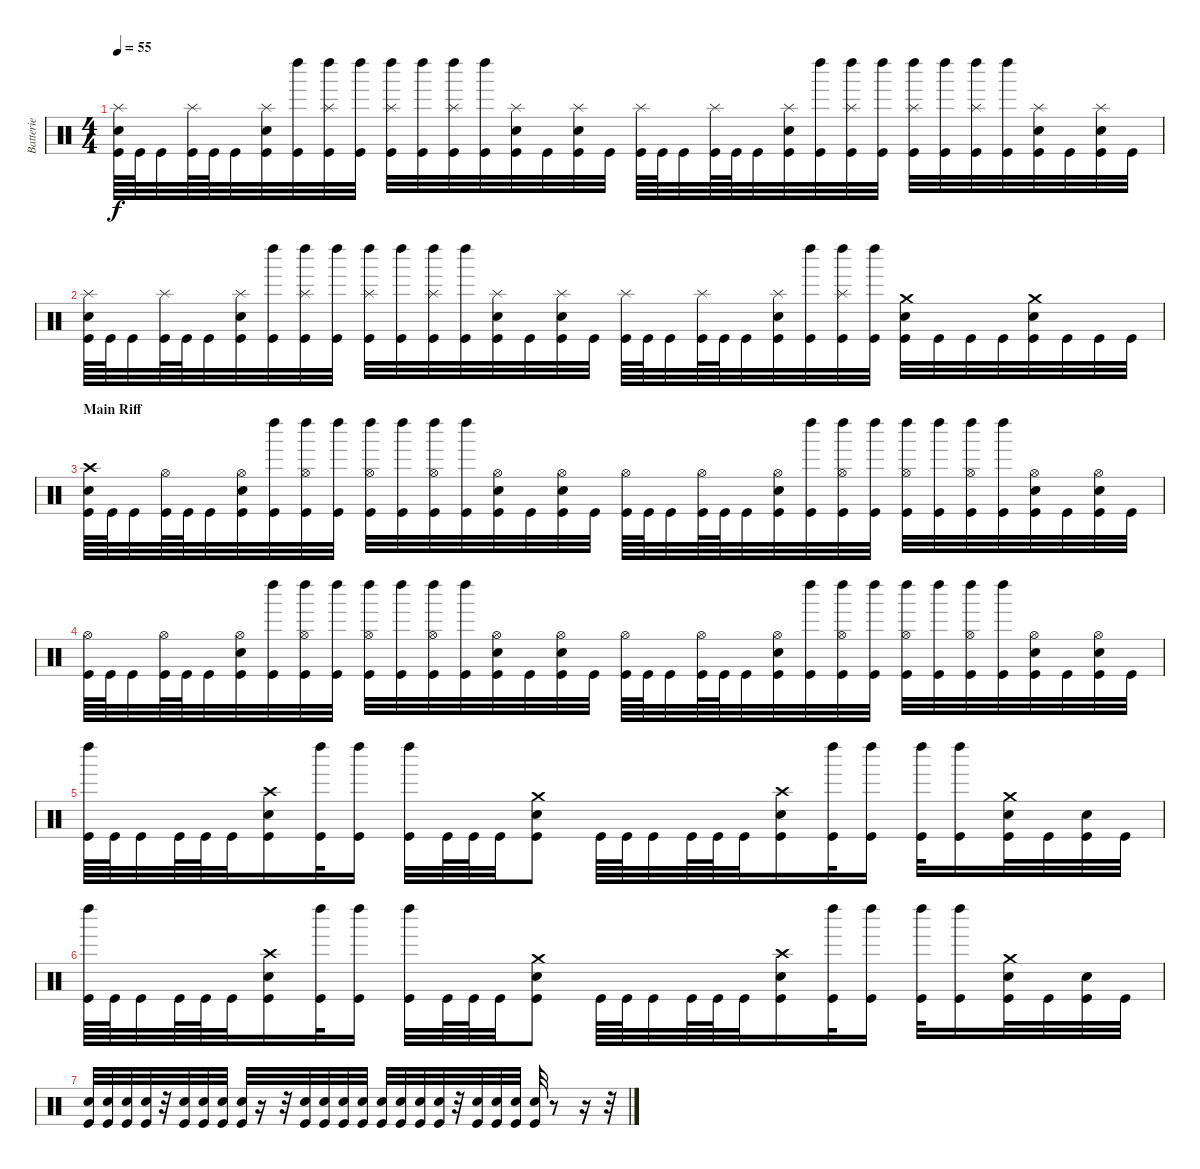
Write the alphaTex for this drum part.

\track ("Batterie" "Batterie") {instrument percussion}
\staff {score}
\articulation defaults
\ts (4 4)
\tempo 55
\clef neutral
\ks c
("Kick (hit)" "Electric Snare (hit)" "Splash (hit)").64{dy f} "Kick (hit)".64 "Kick (hit)".32 ("Kick (hit)" "Splash (hit)").64 "Kick (hit)".64 "Kick (hit)".32 ("Kick (hit)" "Electric Snare (hit)" "Splash (hit)").32 ("Kick (hit)" "Left Maraca (hit)").32 ("Kick (hit)" "Left Maraca (hit)" "Splash (hit)").32 ("Kick (hit)" "Left Maraca (hit)").32 ("Kick (hit)" "Left Maraca (hit)" "Splash (hit)").32 ("Kick (hit)" "Left Maraca (hit)").32 ("Kick (hit)" "Left Maraca (hit)" "Splash (hit)").32 ("Kick (hit)" "Left Maraca (hit)").32 ("Kick (hit)" "Electric Snare (hit)" "Splash (hit)").32 "Kick (hit)".32 ("Kick (hit)" "Electric Snare (hit)" "Splash (hit)").32 "Kick (hit)".32 ("Kick (hit)" "Splash (hit)").64 "Kick (hit)".64 "Kick (hit)".32 ("Kick (hit)" "Splash (hit)").64 "Kick (hit)".64 "Kick (hit)".32 ("Kick (hit)" "Electric Snare (hit)" "Splash (hit)").32 ("Kick (hit)" "Left Maraca (hit)").32 ("Kick (hit)" "Left Maraca (hit)" "Splash (hit)").32 ("Kick (hit)" "Left Maraca (hit)").32 ("Kick (hit)" "Left Maraca (hit)" "Splash (hit)").32 ("Kick (hit)" "Left Maraca (hit)").32 ("Kick (hit)" "Left Maraca (hit)" "Splash (hit)").32 ("Kick (hit)" "Left Maraca (hit)").32 ("Kick (hit)" "Electric Snare (hit)" "Splash (hit)").32 "Kick (hit)".32 ("Kick (hit)" "Electric Snare (hit)" "Splash (hit)").32 "Kick (hit)".32 |
("Kick (hit)" "Electric Snare (hit)" "Splash (hit)").64 "Kick (hit)".64 "Kick (hit)".32 ("Kick (hit)" "Splash (hit)").64 "Kick (hit)".64 "Kick (hit)".32 ("Kick (hit)" "Electric Snare (hit)" "Splash (hit)").32 ("Kick (hit)" "Left Maraca (hit)").32 ("Kick (hit)" "Left Maraca (hit)" "Splash (hit)").32 ("Kick (hit)" "Left Maraca (hit)").32 ("Kick (hit)" "Left Maraca (hit)" "Splash (hit)").32 ("Kick (hit)" "Left Maraca (hit)").32 ("Kick (hit)" "Left Maraca (hit)" "Splash (hit)").32 ("Kick (hit)" "Left Maraca (hit)").32 ("Kick (hit)" "Electric Snare (hit)" "Splash (hit)").32 "Kick (hit)".32 ("Kick (hit)" "Electric Snare (hit)" "Splash (hit)").32 "Kick (hit)".32 ("Kick (hit)" "Splash (hit)").64 "Kick (hit)".64 "Kick (hit)".32 ("Kick (hit)" "Splash (hit)").64 "Kick (hit)".64 "Kick (hit)".32 ("Kick (hit)" "Electric Snare (hit)" "Splash (hit)").32 ("Kick (hit)" "Left Maraca (hit)").32 ("Kick (hit)" "Left Maraca (hit)" "Splash (hit)").32 ("Kick (hit)" "Left Maraca (hit)").32 ("Kick (hit)" "Electric Snare (hit)" "Crash medium (hit)").32 "Kick (hit)".32 "Kick (hit)".32 "Kick (hit)".32 ("Kick (hit)" "Electric Snare (hit)" "Crash medium (hit)").32 "Kick (hit)".32 "Kick (hit)".32 "Kick (hit)".32 |
\section ("" "Main Riff")
("Kick (hit)" "Electric Snare (hit)" "Crash high (hit)").64 "Kick (hit)".64 "Kick (hit)".32 ("Kick (hit)" "Hi-Hat (open)").64 "Kick (hit)".64 "Kick (hit)".32 ("Kick (hit)" "Electric Snare (hit)" "Hi-Hat (open)").32 ("Kick (hit)" "Left Maraca (hit)").32 ("Kick (hit)" "Left Maraca (hit)" "Hi-Hat (open)").32 ("Kick (hit)" "Left Maraca (hit)").32 ("Kick (hit)" "Left Maraca (hit)" "Hi-Hat (open)").32 ("Kick (hit)" "Left Maraca (hit)").32 ("Kick (hit)" "Left Maraca (hit)" "Hi-Hat (open)").32 ("Kick (hit)" "Left Maraca (hit)").32 ("Kick (hit)" "Electric Snare (hit)" "Hi-Hat (open)").32 "Kick (hit)".32 ("Kick (hit)" "Electric Snare (hit)" "Hi-Hat (open)").32 "Kick (hit)".32 ("Kick (hit)" "Hi-Hat (open)").64 "Kick (hit)".64 "Kick (hit)".32 ("Kick (hit)" "Hi-Hat (open)").64 "Kick (hit)".64 "Kick (hit)".32 ("Kick (hit)" "Electric Snare (hit)" "Hi-Hat (open)").32 ("Kick (hit)" "Left Maraca (hit)").32 ("Kick (hit)" "Left Maraca (hit)" "Hi-Hat (open)").32 ("Kick (hit)" "Left Maraca (hit)").32 ("Kick (hit)" "Left Maraca (hit)" "Hi-Hat (open)").32 ("Kick (hit)" "Left Maraca (hit)").32 ("Kick (hit)" "Left Maraca (hit)" "Hi-Hat (open)").32 ("Kick (hit)" "Left Maraca (hit)").32 ("Kick (hit)" "Electric Snare (hit)" "Hi-Hat (open)").32 "Kick (hit)".32 ("Kick (hit)" "Electric Snare (hit)" "Hi-Hat (open)").32 "Kick (hit)".32 |
("Kick (hit)" "Hi-Hat (open)").64 "Kick (hit)".64 "Kick (hit)".32 ("Kick (hit)" "Hi-Hat (open)").64 "Kick (hit)".64 "Kick (hit)".32 ("Kick (hit)" "Electric Snare (hit)" "Hi-Hat (open)").32 ("Kick (hit)" "Left Maraca (hit)").32 ("Kick (hit)" "Left Maraca (hit)" "Hi-Hat (open)").32 ("Kick (hit)" "Left Maraca (hit)").32 ("Kick (hit)" "Left Maraca (hit)" "Hi-Hat (open)").32 ("Kick (hit)" "Left Maraca (hit)").32 ("Kick (hit)" "Left Maraca (hit)" "Hi-Hat (open)").32 ("Kick (hit)" "Left Maraca (hit)").32 ("Kick (hit)" "Electric Snare (hit)" "Hi-Hat (open)").32 "Kick (hit)".32 ("Kick (hit)" "Electric Snare (hit)" "Hi-Hat (open)").32 "Kick (hit)".32 ("Kick (hit)" "Hi-Hat (open)").64 "Kick (hit)".64 "Kick (hit)".32 ("Kick (hit)" "Hi-Hat (open)").64 "Kick (hit)".64 "Kick (hit)".32 ("Kick (hit)" "Electric Snare (hit)" "Hi-Hat (open)").32 ("Kick (hit)" "Left Maraca (hit)").32 ("Kick (hit)" "Left Maraca (hit)" "Hi-Hat (open)").32 ("Kick (hit)" "Left Maraca (hit)").32 ("Kick (hit)" "Left Maraca (hit)" "Hi-Hat (open)").32 ("Kick (hit)" "Left Maraca (hit)").32 ("Kick (hit)" "Left Maraca (hit)" "Hi-Hat (open)").32 ("Kick (hit)" "Left Maraca (hit)").32 ("Kick (hit)" "Electric Snare (hit)" "Hi-Hat (open)").32 "Kick (hit)".32 ("Kick (hit)" "Electric Snare (hit)" "Hi-Hat (open)").32 "Kick (hit)".32 |
("Kick (hit)" "Left Maraca (hit)").64 "Kick (hit)".64 "Kick (hit)".32 "Kick (hit)".64 "Kick (hit)".64 "Kick (hit)".32 ("Kick (hit)" "Electric Snare (hit)" "Crash high (hit)").16 ("Kick (hit)" "Left Maraca (hit)").32 ("Kick (hit)" "Left Maraca (hit)").16 ("Kick (hit)" "Left Maraca (hit)").32 "Kick (hit)".64 "Kick (hit)".64 "Kick (hit)".32 ("Kick (hit)" "Electric Snare (hit)" "Crash medium (hit)").8 "Kick (hit)".64 "Kick (hit)".64 "Kick (hit)".32 "Kick (hit)".64 "Kick (hit)".64 "Kick (hit)".32 ("Kick (hit)" "Electric Snare (hit)" "Crash high (hit)").16 ("Kick (hit)" "Left Maraca (hit)").32 ("Kick (hit)" "Left Maraca (hit)").16 ("Kick (hit)" "Left Maraca (hit)").32 ("Kick (hit)" "Left Maraca (hit)").16 ("Kick (hit)" "Electric Snare (hit)" "Crash medium (hit)").32 "Kick (hit)".32 ("Kick (hit)" "Electric Snare (hit)").32 "Kick (hit)".32 |
("Kick (hit)" "Left Maraca (hit)").64 "Kick (hit)".64 "Kick (hit)".32 "Kick (hit)".64 "Kick (hit)".64 "Kick (hit)".32 ("Kick (hit)" "Electric Snare (hit)" "Crash high (hit)").16 ("Kick (hit)" "Left Maraca (hit)").32 ("Kick (hit)" "Left Maraca (hit)").16 ("Kick (hit)" "Left Maraca (hit)").32 "Kick (hit)".64 "Kick (hit)".64 "Kick (hit)".32 ("Kick (hit)" "Electric Snare (hit)" "Crash medium (hit)").8 "Kick (hit)".64 "Kick (hit)".64 "Kick (hit)".32 "Kick (hit)".64 "Kick (hit)".64 "Kick (hit)".32 ("Kick (hit)" "Electric Snare (hit)" "Crash high (hit)").16 ("Kick (hit)" "Left Maraca (hit)").32 ("Kick (hit)" "Left Maraca (hit)").16 ("Kick (hit)" "Left Maraca (hit)").32 ("Kick (hit)" "Left Maraca (hit)").16 ("Kick (hit)" "Electric Snare (hit)" "Crash medium (hit)").32 "Kick (hit)".32 ("Kick (hit)" "Electric Snare (hit)").32 "Kick (hit)".32 |
("Kick (hit)" "Electric Snare (hit)").32 ("Kick (hit)" "Electric Snare (hit)").32 ("Kick (hit)" "Electric Snare (hit)").32 ("Kick (hit)" "Electric Snare (hit)").32 r.32 ("Kick (hit)" "Electric Snare (hit)").32 ("Kick (hit)" "Electric Snare (hit)").32 ("Kick (hit)" "Electric Snare (hit)").32 ("Kick (hit)" "Electric Snare (hit)").32 r.16 r.32 ("Kick (hit)" "Electric Snare (hit)").32 ("Kick (hit)" "Electric Snare (hit)").32 ("Kick (hit)" "Electric Snare (hit)").32 ("Kick (hit)" "Electric Snare (hit)").32 ("Kick (hit)" "Electric Snare (hit)").32 ("Kick (hit)" "Electric Snare (hit)").32 ("Kick (hit)" "Electric Snare (hit)").32 ("Kick (hit)" "Electric Snare (hit)").32 r.32 ("Kick (hit)" "Electric Snare (hit)").32 ("Kick (hit)" "Electric Snare (hit)").32 ("Kick (hit)" "Electric Snare (hit)").32 ("Kick (hit)" "Electric Snare (hit)").32 r.8 r.16 r.32
